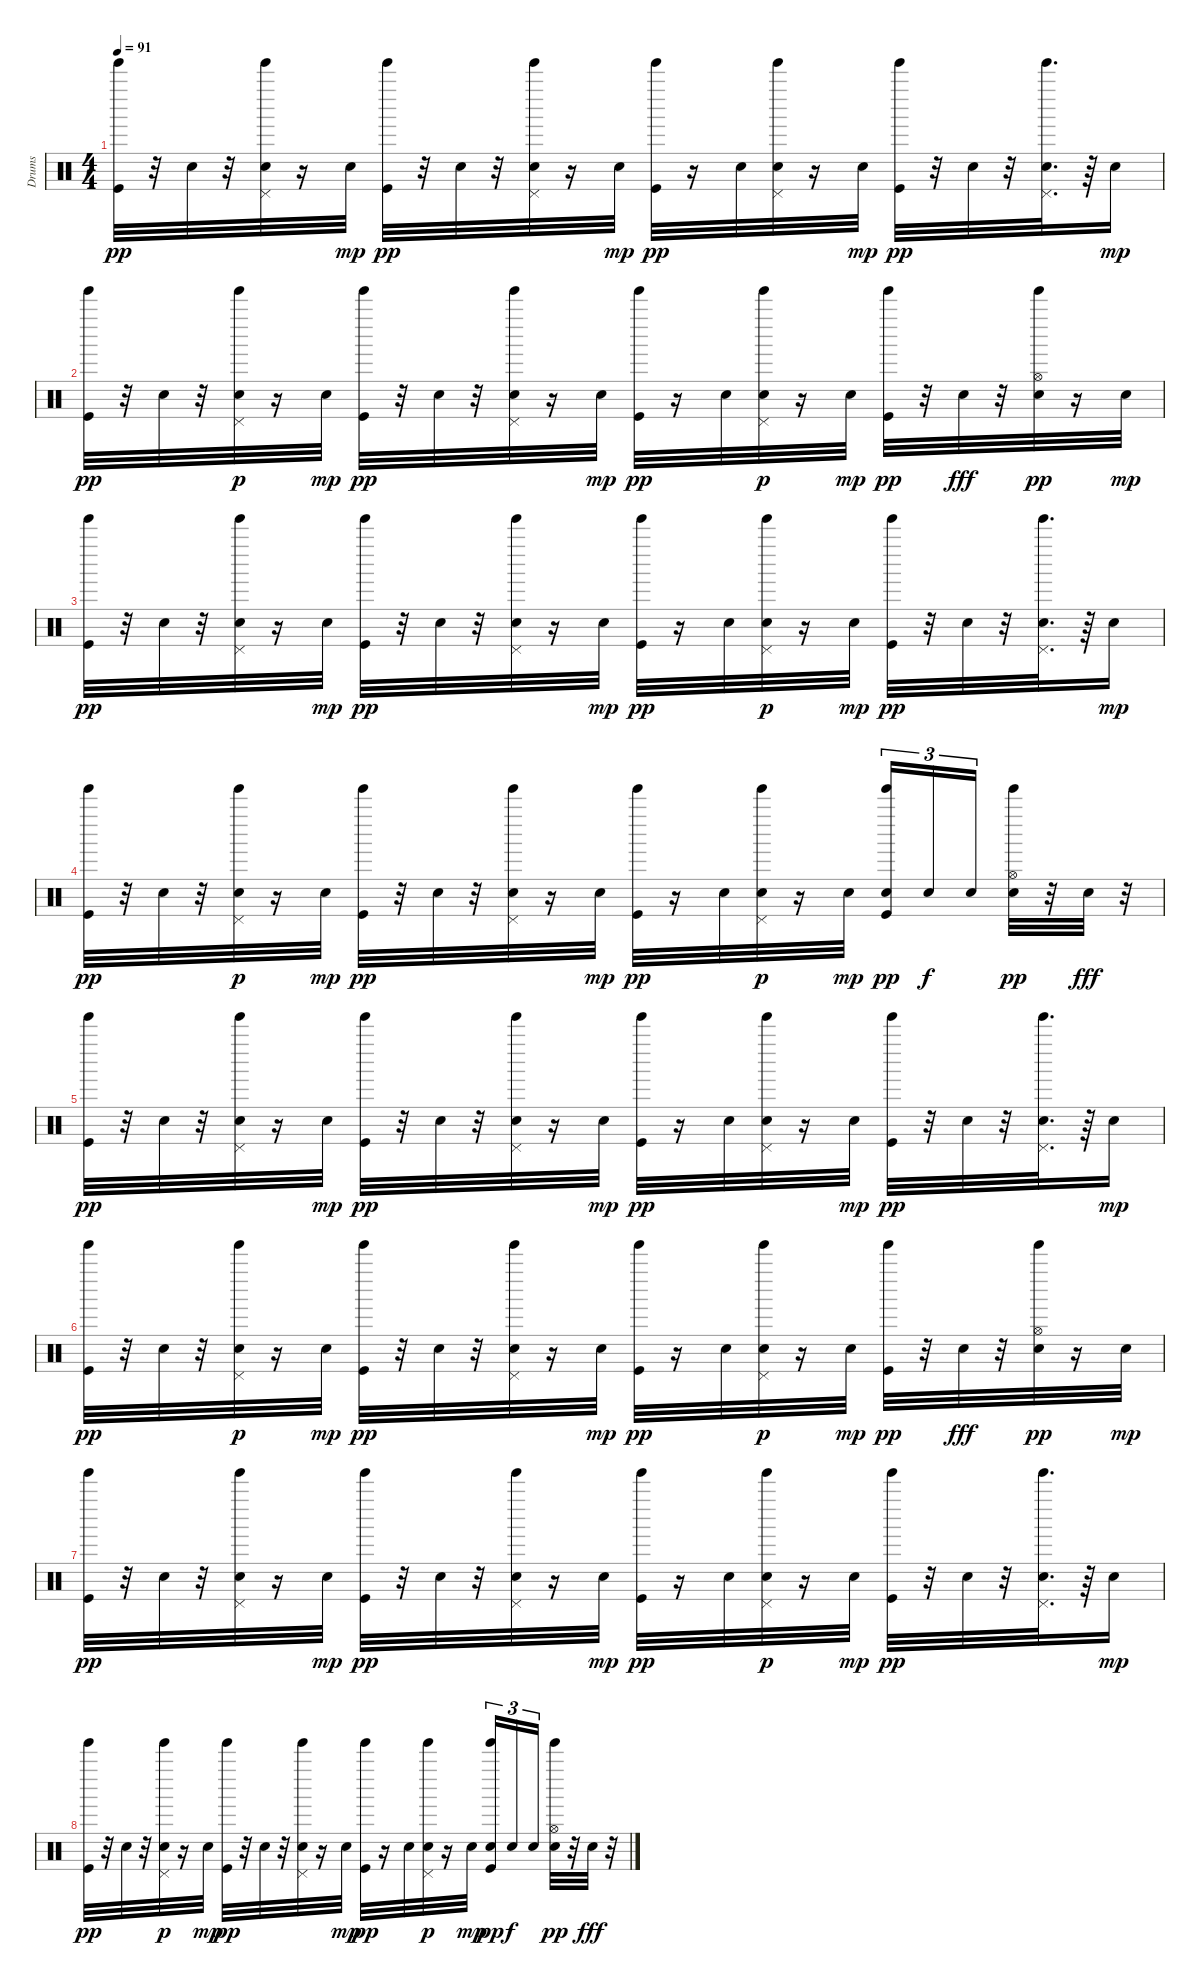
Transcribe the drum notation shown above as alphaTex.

\track ("Drums" "Drums") {instrument percussion}
\staff {score}
\articulation defaults
\ts (4 4)
\tempo 91
\clef neutral
\ks c
("Kick (hit)" "Tinkle Bell (hit)").32{dy pp} r.32 "Snare (hit) 2".32 r.32 ("Snare (hit) 2" "Pedal Hi-Hat (hit)" "Tinkle Bell (hit)").32 r.16 "Snare (hit) 2".32{dy mp} ("Kick (hit)" "Tinkle Bell (hit)").32{dy pp} r.32 "Snare (hit) 2".32 r.32 ("Snare (hit) 2" "Pedal Hi-Hat (hit)" "Tinkle Bell (hit)").32 r.16 "Snare (hit) 2".32{dy mp} ("Kick (hit)" "Tinkle Bell (hit)").32{dy pp} r.16 "Snare (hit) 2".32 ("Snare (hit) 2" "Pedal Hi-Hat (hit)" "Tinkle Bell (hit)").32 r.16 "Snare (hit) 2".32{dy mp} ("Kick (hit)" "Tinkle Bell (hit)").32{dy pp} r.32 "Snare (hit) 2".32 r.32 ("Snare (hit) 2" "Pedal Hi-Hat (hit)" "Tinkle Bell (hit)").32{d} r.64 "Snare (hit) 2".16{dy mp} |
("Kick (hit)" "Tinkle Bell (hit)").32{dy pp} r.32 "Snare (hit) 2".32 r.32 ("Snare (hit) 2" "Pedal Hi-Hat (hit)" "Tinkle Bell (hit)").32{dy p} r.16 "Snare (hit) 2".32{dy mp} ("Kick (hit)" "Tinkle Bell (hit)").32{dy pp} r.32 "Snare (hit) 2".32 r.32 ("Snare (hit) 2" "Pedal Hi-Hat (hit)" "Tinkle Bell (hit)").32 r.16 "Snare (hit) 2".32{dy mp} ("Kick (hit)" "Tinkle Bell (hit)").32{dy pp} r.16 "Snare (hit) 2".32 ("Snare (hit) 2" "Pedal Hi-Hat (hit)" "Tinkle Bell (hit)").32{dy p} r.16 "Snare (hit) 2".32{dy mp} ("Kick (hit)" "Tinkle Bell (hit)").32{dy pp} r.32 "Snare (hit) 2".32{dy fff} r.32 ("Snare (hit) 2" "Hi-Hat (open)" "Tinkle Bell (hit)").32{dy pp} r.16 "Snare (hit) 2".32{dy mp} |
("Kick (hit)" "Tinkle Bell (hit)").32{dy pp} r.32 "Snare (hit) 2".32 r.32 ("Snare (hit) 2" "Pedal Hi-Hat (hit)" "Tinkle Bell (hit)").32 r.16 "Snare (hit) 2".32{dy mp} ("Kick (hit)" "Tinkle Bell (hit)").32{dy pp} r.32 "Snare (hit) 2".32 r.32 ("Snare (hit) 2" "Pedal Hi-Hat (hit)" "Tinkle Bell (hit)").32 r.16 "Snare (hit) 2".32{dy mp} ("Kick (hit)" "Tinkle Bell (hit)").32{dy pp} r.16 "Snare (hit) 2".32 ("Snare (hit) 2" "Pedal Hi-Hat (hit)" "Tinkle Bell (hit)").32{dy p} r.16 "Snare (hit) 2".32{dy mp} ("Kick (hit)" "Tinkle Bell (hit)").32{dy pp} r.32 "Snare (hit) 2".32 r.32 ("Snare (hit) 2" "Pedal Hi-Hat (hit)" "Tinkle Bell (hit)").32{d} r.64 "Snare (hit) 2".16{dy mp} |
("Kick (hit)" "Tinkle Bell (hit)").32{dy pp} r.32 "Snare (hit) 2".32 r.32 ("Snare (hit) 2" "Pedal Hi-Hat (hit)" "Tinkle Bell (hit)").32{dy p} r.16 "Snare (hit) 2".32{dy mp} ("Kick (hit)" "Tinkle Bell (hit)").32{dy pp} r.32 "Snare (hit) 2".32 r.32 ("Snare (hit) 2" "Pedal Hi-Hat (hit)" "Tinkle Bell (hit)").32 r.16 "Snare (hit) 2".32{dy mp} ("Kick (hit)" "Tinkle Bell (hit)").32{dy pp} r.16 "Snare (hit) 2".32 ("Snare (hit) 2" "Pedal Hi-Hat (hit)" "Tinkle Bell (hit)").32{dy p} r.16 "Snare (hit) 2".32{dy mp} ("Kick (hit)" "Snare (hit) 2" "Tinkle Bell (hit)").16{tu (3 2) dy pp} "Snare (hit) 2".16{tu (3 2) dy f} "Snare (hit) 2".16{tu (3 2) beam splitsecondary} ("Snare (hit) 2" "Hi-Hat (open)" "Tinkle Bell (hit)").32{dy pp} r.32 "Snare (hit) 2".32{dy fff} r.32 |
("Kick (hit)" "Tinkle Bell (hit)").32{dy pp} r.32 "Snare (hit) 2".32 r.32 ("Snare (hit) 2" "Pedal Hi-Hat (hit)" "Tinkle Bell (hit)").32 r.16 "Snare (hit) 2".32{dy mp} ("Kick (hit)" "Tinkle Bell (hit)").32{dy pp} r.32 "Snare (hit) 2".32 r.32 ("Snare (hit) 2" "Pedal Hi-Hat (hit)" "Tinkle Bell (hit)").32 r.16 "Snare (hit) 2".32{dy mp} ("Kick (hit)" "Tinkle Bell (hit)").32{dy pp} r.16 "Snare (hit) 2".32 ("Snare (hit) 2" "Pedal Hi-Hat (hit)" "Tinkle Bell (hit)").32 r.16 "Snare (hit) 2".32{dy mp} ("Kick (hit)" "Tinkle Bell (hit)").32{dy pp} r.32 "Snare (hit) 2".32 r.32 ("Snare (hit) 2" "Pedal Hi-Hat (hit)" "Tinkle Bell (hit)").32{d} r.64 "Snare (hit) 2".16{dy mp} |
("Kick (hit)" "Tinkle Bell (hit)").32{dy pp} r.32 "Snare (hit) 2".32 r.32 ("Snare (hit) 2" "Pedal Hi-Hat (hit)" "Tinkle Bell (hit)").32{dy p} r.16 "Snare (hit) 2".32{dy mp} ("Kick (hit)" "Tinkle Bell (hit)").32{dy pp} r.32 "Snare (hit) 2".32 r.32 ("Snare (hit) 2" "Pedal Hi-Hat (hit)" "Tinkle Bell (hit)").32 r.16 "Snare (hit) 2".32{dy mp} ("Kick (hit)" "Tinkle Bell (hit)").32{dy pp} r.16 "Snare (hit) 2".32 ("Snare (hit) 2" "Pedal Hi-Hat (hit)" "Tinkle Bell (hit)").32{dy p} r.16 "Snare (hit) 2".32{dy mp} ("Kick (hit)" "Tinkle Bell (hit)").32{dy pp} r.32 "Snare (hit) 2".32{dy fff} r.32 ("Snare (hit) 2" "Hi-Hat (open)" "Tinkle Bell (hit)").32{dy pp} r.16 "Snare (hit) 2".32{dy mp} |
("Kick (hit)" "Tinkle Bell (hit)").32{dy pp} r.32 "Snare (hit) 2".32 r.32 ("Snare (hit) 2" "Pedal Hi-Hat (hit)" "Tinkle Bell (hit)").32 r.16 "Snare (hit) 2".32{dy mp} ("Kick (hit)" "Tinkle Bell (hit)").32{dy pp} r.32 "Snare (hit) 2".32 r.32 ("Snare (hit) 2" "Pedal Hi-Hat (hit)" "Tinkle Bell (hit)").32 r.16 "Snare (hit) 2".32{dy mp} ("Kick (hit)" "Tinkle Bell (hit)").32{dy pp} r.16 "Snare (hit) 2".32 ("Snare (hit) 2" "Pedal Hi-Hat (hit)" "Tinkle Bell (hit)").32{dy p} r.16 "Snare (hit) 2".32{dy mp} ("Kick (hit)" "Tinkle Bell (hit)").32{dy pp} r.32 "Snare (hit) 2".32 r.32 ("Snare (hit) 2" "Pedal Hi-Hat (hit)" "Tinkle Bell (hit)").32{d} r.64 "Snare (hit) 2".16{dy mp} |
("Kick (hit)" "Tinkle Bell (hit)").32{dy pp} r.32 "Snare (hit) 2".32 r.32 ("Snare (hit) 2" "Pedal Hi-Hat (hit)" "Tinkle Bell (hit)").32{dy p} r.16 "Snare (hit) 2".32{dy mp} ("Kick (hit)" "Tinkle Bell (hit)").32{dy pp} r.32 "Snare (hit) 2".32 r.32 ("Snare (hit) 2" "Pedal Hi-Hat (hit)" "Tinkle Bell (hit)").32 r.16 "Snare (hit) 2".32{dy mp} ("Kick (hit)" "Tinkle Bell (hit)").32{dy pp} r.16 "Snare (hit) 2".32 ("Snare (hit) 2" "Pedal Hi-Hat (hit)" "Tinkle Bell (hit)").32{dy p} r.16 "Snare (hit) 2".32{dy mp} ("Kick (hit)" "Snare (hit) 2" "Tinkle Bell (hit)").16{tu (3 2) dy pp} "Snare (hit) 2".16{tu (3 2) dy f} "Snare (hit) 2".16{tu (3 2) beam splitsecondary} ("Snare (hit) 2" "Hi-Hat (open)" "Tinkle Bell (hit)").32{dy pp} r.32 "Snare (hit) 2".32{dy fff} r.32
